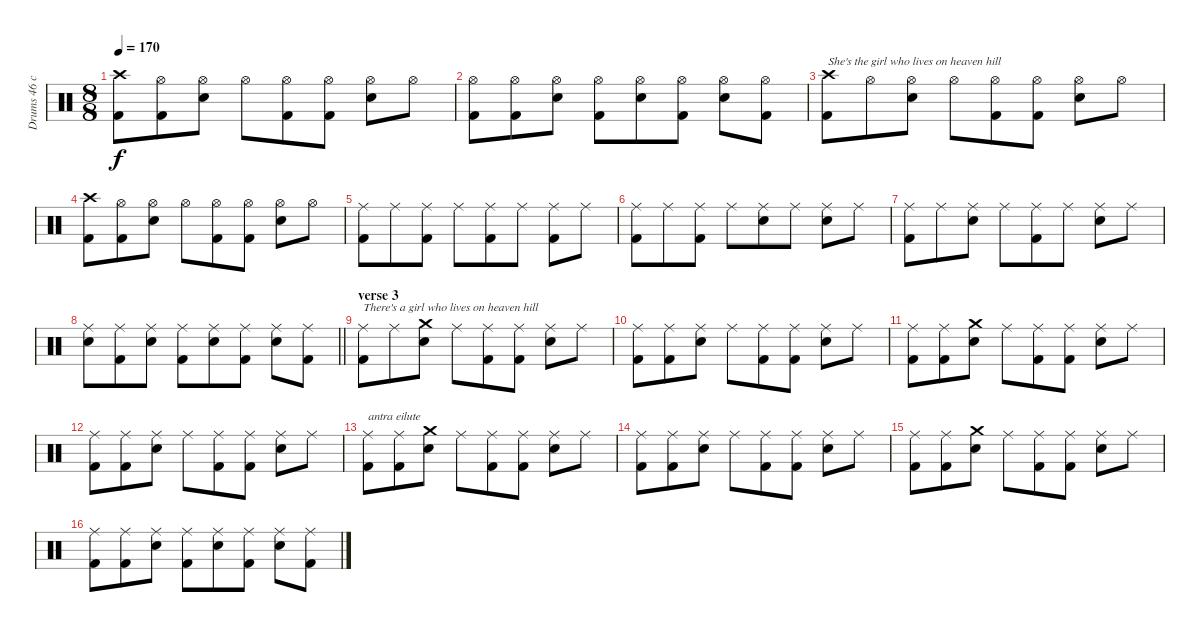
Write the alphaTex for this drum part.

\track ("Drums 46 chorus" "Drums 46 c") {mute instrument percussion}
\staff {score}
\articulation defaults
\ts (8 8)
\tempo 170
\clef neutral
\ks c
("Crash high (hit)" "Kick (hit) 2").8{dy f} ("Hi-Hat (open)" "Kick (hit) 2").8 ("Hi-Hat (open)" "Snare (hit) 2").8 "Hi-Hat (open)".8 ("Hi-Hat (open)" "Kick (hit) 2").8 ("Hi-Hat (open)" "Kick (hit) 2").8 ("Hi-Hat (open)" "Snare (hit) 2").8 "Hi-Hat (open)".8 |
("Hi-Hat (open)" "Kick (hit) 2").8 ("Hi-Hat (open)" "Kick (hit) 2").8 ("Hi-Hat (open)" "Snare (hit) 2").8 ("Hi-Hat (open)" "Kick (hit) 2").8 ("Hi-Hat (open)" "Snare (hit) 2").8 ("Hi-Hat (open)" "Kick (hit) 2").8 ("Hi-Hat (open)" "Snare (hit) 2").8 ("Hi-Hat (open)" "Kick (hit) 2").8 |
("Crash high (hit)" "Kick (hit) 2").8{txt "She's the girl who lives on heaven hill"} "Hi-Hat (open)".8 ("Hi-Hat (open)" "Snare (hit) 2").8 "Hi-Hat (open)".8 ("Hi-Hat (open)" "Kick (hit) 2").8 ("Hi-Hat (open)" "Kick (hit) 2").8 ("Hi-Hat (open)" "Snare (hit) 2").8 "Hi-Hat (open)".8 |
("Crash high (hit)" "Kick (hit) 2").8 ("Hi-Hat (open)" "Kick (hit) 2").8 ("Hi-Hat (open)" "Snare (hit) 2").8 "Hi-Hat (open)".8 ("Hi-Hat (open)" "Kick (hit) 2").8 ("Hi-Hat (open)" "Kick (hit) 2").8 ("Hi-Hat (open)" "Snare (hit) 2").8 "Hi-Hat (open)".8 |
("Ride (middle)" "Kick (hit) 2").8 "Ride (middle)".8 ("Ride (middle)" "Kick (hit) 2").8 "Ride (middle)".8 ("Ride (middle)" "Kick (hit) 2").8 "Ride (middle)".8 ("Ride (middle)" "Kick (hit) 2").8 "Ride (middle)".8 |
("Ride (middle)" "Kick (hit) 2").8 "Ride (middle)".8 ("Ride (middle)" "Kick (hit) 2").8 "Ride (middle)".8 ("Ride (middle)" "Snare (hit) 2").8 "Ride (middle)".8 ("Ride (middle)" "Snare (hit) 2").8 "Ride (middle)".8 |
("Ride (middle)" "Kick (hit) 2").8 "Ride (middle)".8 ("Ride (middle)" "Snare (hit) 2").8 "Ride (middle)".8 ("Ride (middle)" "Kick (hit) 2").8 "Ride (middle)".8 ("Ride (middle)" "Snare (hit) 2").8 "Ride (middle)".8 |
\barLineRight lightlight
("Ride (middle)" "Snare (hit) 2").8 ("Ride (middle)" "Kick (hit) 2").8 ("Ride (middle)" "Snare (hit) 2").8 ("Ride (middle)" "Kick (hit) 2").8 ("Ride (middle)" "Snare (hit) 2").8 ("Ride (middle)" "Kick (hit) 2").8 ("Ride (middle)" "Snare (hit) 2").8 ("Ride (middle)" "Kick (hit) 2").8 |
\section ("" "verse 3")
("Ride (middle)" "Kick (hit) 2").8{txt "There's a girl who lives on heaven hill"} "Ride (middle)".8 ("Crash medium (hit)" "Snare (hit) 2").8 "Ride (middle)".8 ("Ride (middle)" "Kick (hit) 2").8 ("Ride (middle)" "Kick (hit) 2").8 ("Ride (middle)" "Snare (hit) 2").8 "Ride (middle)".8 |
("Ride (middle)" "Kick (hit) 2").8 ("Ride (middle)" "Kick (hit) 2").8 ("Ride (middle)" "Snare (hit) 2").8 "Ride (middle)".8 ("Ride (middle)" "Kick (hit) 2").8 ("Ride (middle)" "Kick (hit) 2").8 ("Ride (middle)" "Snare (hit) 2").8 "Ride (middle)".8 |
("Ride (middle)" "Kick (hit) 2").8 ("Ride (middle)" "Kick (hit) 2").8 ("Crash medium (hit)" "Snare (hit) 2").8 "Ride (middle)".8 ("Ride (middle)" "Kick (hit) 2").8 ("Ride (middle)" "Kick (hit) 2").8 ("Ride (middle)" "Snare (hit) 2").8 "Ride (middle)".8 |
("Ride (middle)" "Kick (hit) 2").8 ("Ride (middle)" "Kick (hit) 2").8 ("Ride (middle)" "Snare (hit) 2").8 "Ride (middle)".8 ("Ride (middle)" "Kick (hit) 2").8 ("Ride (middle)" "Kick (hit) 2").8 ("Ride (middle)" "Snare (hit) 2").8 "Ride (middle)".8 |
("Ride (middle)" "Kick (hit) 2").8{txt "antra eilute"} ("Ride (middle)" "Kick (hit) 2").8 ("Crash medium (hit)" "Snare (hit) 2").8 "Ride (middle)".8 ("Ride (middle)" "Kick (hit) 2").8 ("Ride (middle)" "Kick (hit) 2").8 ("Ride (middle)" "Snare (hit) 2").8 "Ride (middle)".8 |
("Ride (middle)" "Kick (hit) 2").8 ("Ride (middle)" "Kick (hit) 2").8 ("Ride (middle)" "Snare (hit) 2").8 "Ride (middle)".8 ("Ride (middle)" "Kick (hit) 2").8 ("Ride (middle)" "Kick (hit) 2").8 ("Ride (middle)" "Snare (hit) 2").8 "Ride (middle)".8 |
("Ride (middle)" "Kick (hit) 2").8 ("Ride (middle)" "Kick (hit) 2").8 ("Crash medium (hit)" "Snare (hit) 2").8 "Ride (middle)".8 ("Ride (middle)" "Kick (hit) 2").8 ("Ride (middle)" "Kick (hit) 2").8 ("Ride (middle)" "Snare (hit) 2").8 "Ride (middle)".8 |
("Ride (middle)" "Kick (hit) 2").8 ("Ride (middle)" "Kick (hit) 2").8 ("Ride (middle)" "Snare (hit) 2").8 ("Ride (middle)" "Kick (hit) 2").8 ("Ride (middle)" "Snare (hit) 2").8 ("Ride (middle)" "Kick (hit) 2").8 ("Ride (middle)" "Snare (hit) 2").8 ("Ride (middle)" "Kick (hit) 2").8
